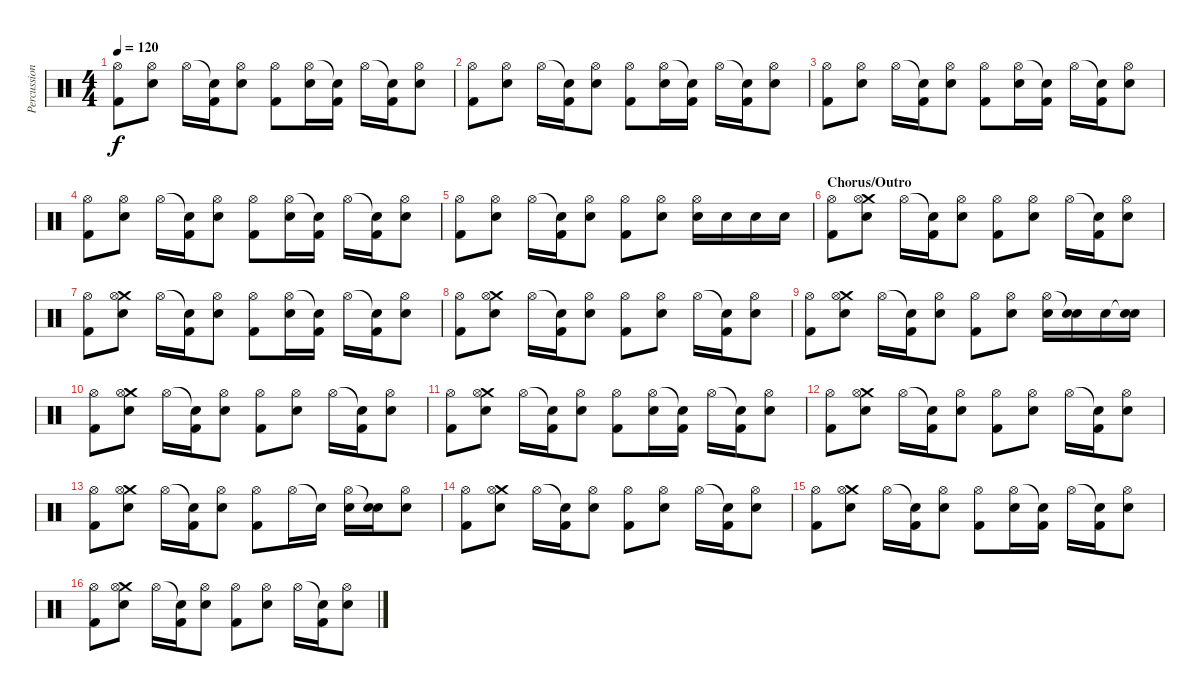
\track ("Percussion" "Percussion") {instrument percussion}
\staff {score}
\articulation defaults
\ts (4 4)
\tempo 120
\clef neutral
\ks c
("Hi-Hat (open)" "Kick (hit) 2").8{dy f} ("Hi-Hat (open)" "Electric Snare (hit)").8 "Hi-Hat (open)".16 ("Snare (hit)"{t} "Kick (hit) 2").16 ("Hi-Hat (open)" "Electric Snare (hit)").8 ("Hi-Hat (open)" "Kick (hit) 2").8 ("Hi-Hat (open)" "Electric Snare (hit)").16 ("Snare (hit)"{t} "Kick (hit) 2").16 "Hi-Hat (open)".16 ("Snare (hit)"{t} "Kick (hit) 2").16 ("Hi-Hat (open)" "Electric Snare (hit)").8 |
("Hi-Hat (open)" "Kick (hit) 2").8 ("Hi-Hat (open)" "Electric Snare (hit)").8 "Hi-Hat (open)".16 ("Snare (hit)"{t} "Kick (hit) 2").16 ("Hi-Hat (open)" "Electric Snare (hit)").8 ("Hi-Hat (open)" "Kick (hit) 2").8 ("Hi-Hat (open)" "Electric Snare (hit)").16 ("Snare (hit)"{t} "Kick (hit) 2").16 "Hi-Hat (open)".16 ("Snare (hit)"{t} "Kick (hit) 2").16 ("Hi-Hat (open)" "Electric Snare (hit)").8 |
("Hi-Hat (open)" "Kick (hit) 2").8 ("Hi-Hat (open)" "Electric Snare (hit)").8 "Hi-Hat (open)".16 ("Snare (hit)"{t} "Kick (hit) 2").16 ("Hi-Hat (open)" "Electric Snare (hit)").8 ("Hi-Hat (open)" "Kick (hit) 2").8 ("Hi-Hat (open)" "Electric Snare (hit)").16 ("Snare (hit)"{t} "Kick (hit) 2").16 "Hi-Hat (open)".16 ("Snare (hit)"{t} "Kick (hit) 2").16 ("Hi-Hat (open)" "Electric Snare (hit)").8 |
("Hi-Hat (open)" "Kick (hit) 2").8 ("Hi-Hat (open)" "Electric Snare (hit)").8 "Hi-Hat (open)".16 ("Snare (hit)"{t} "Kick (hit) 2").16 ("Hi-Hat (open)" "Electric Snare (hit)").8 ("Hi-Hat (open)" "Kick (hit) 2").8 ("Hi-Hat (open)" "Electric Snare (hit)").16 ("Snare (hit)"{t} "Kick (hit) 2").16 "Hi-Hat (open)".16 ("Snare (hit)"{t} "Kick (hit) 2").16 ("Hi-Hat (open)" "Electric Snare (hit)").8 |
("Hi-Hat (open)" "Kick (hit) 2").8 ("Hi-Hat (open)" "Electric Snare (hit)").8 "Hi-Hat (open)".16 ("Snare (hit)"{t} "Kick (hit) 2").16 ("Hi-Hat (open)" "Electric Snare (hit)").8 ("Hi-Hat (open)" "Kick (hit) 2").8 ("Hi-Hat (open)" "Electric Snare (hit)").8 ("Hi-Hat (open)" "Electric Snare (hit)").16 "Electric Snare (hit)".16 "Electric Snare (hit)".16 "Electric Snare (hit)".16 |
\section ("" "Chorus/Outro")
("Hi-Hat (open)" "Kick (hit) 2").8 ("Crash medium (hit)" "Hi-Hat (open)" "Electric Snare (hit)").8 "Hi-Hat (open)".16 ("Snare (hit)"{t} "Kick (hit) 2").16 ("Hi-Hat (open)" "Electric Snare (hit)").8 ("Hi-Hat (open)" "Kick (hit) 2").8 ("Hi-Hat (open)" "Electric Snare (hit)").8 "Hi-Hat (open)".16 ("Snare (hit)"{t} "Kick (hit) 2").16 ("Hi-Hat (open)" "Electric Snare (hit)").8 |
("Hi-Hat (open)" "Kick (hit) 2").8 ("Crash medium (hit)" "Hi-Hat (open)" "Electric Snare (hit)").8 "Hi-Hat (open)".16 ("Snare (hit)"{t} "Kick (hit) 2").16 ("Hi-Hat (open)" "Electric Snare (hit)").8 ("Hi-Hat (open)" "Kick (hit) 2").8 ("Hi-Hat (open)" "Electric Snare (hit)").16 ("Snare (hit)"{t} "Kick (hit) 2").16 "Hi-Hat (open)".16 ("Snare (hit)"{t} "Kick (hit) 2").16 ("Hi-Hat (open)" "Electric Snare (hit)").8 |
("Hi-Hat (open)" "Kick (hit) 2").8 ("Crash medium (hit)" "Hi-Hat (open)" "Electric Snare (hit)").8 "Hi-Hat (open)".16 ("Snare (hit)"{t} "Kick (hit) 2").16 ("Hi-Hat (open)" "Electric Snare (hit)").8 ("Hi-Hat (open)" "Kick (hit) 2").8 ("Hi-Hat (open)" "Electric Snare (hit)").8 "Hi-Hat (open)".16 ("Snare (hit)"{t} "Kick (hit) 2").16 ("Hi-Hat (open)" "Electric Snare (hit)").8 |
("Hi-Hat (open)" "Kick (hit) 2").8 ("Crash medium (hit)" "Hi-Hat (open)" "Electric Snare (hit)").8 "Hi-Hat (open)".16 ("Snare (hit)"{t} "Kick (hit) 2").16 ("Hi-Hat (open)" "Electric Snare (hit)").8 ("Hi-Hat (open)" "Kick (hit) 2").8 ("Hi-Hat (open)" "Electric Snare (hit)").8 ("Hi-Hat (open)" "Electric Snare (hit)").16 ("Snare (hit)"{t} "Electric Snare (hit)").16 "Electric Snare (hit)".16 ("Snare (hit)"{t} "Electric Snare (hit)").16 |
("Hi-Hat (open)" "Kick (hit) 2").8 ("Crash medium (hit)" "Hi-Hat (open)" "Electric Snare (hit)").8 "Hi-Hat (open)".16 ("Snare (hit)"{t} "Kick (hit) 2").16 ("Hi-Hat (open)" "Electric Snare (hit)").8 ("Hi-Hat (open)" "Kick (hit) 2").8 ("Hi-Hat (open)" "Electric Snare (hit)").8 "Hi-Hat (open)".16 ("Snare (hit)"{t} "Kick (hit) 2").16 ("Hi-Hat (open)" "Electric Snare (hit)").8 |
("Hi-Hat (open)" "Kick (hit) 2").8 ("Crash medium (hit)" "Hi-Hat (open)" "Electric Snare (hit)").8 "Hi-Hat (open)".16 ("Snare (hit)"{t} "Kick (hit) 2").16 ("Hi-Hat (open)" "Electric Snare (hit)").8 ("Hi-Hat (open)" "Kick (hit) 2").8 ("Hi-Hat (open)" "Electric Snare (hit)").16 ("Snare (hit)"{t} "Kick (hit) 2").16 "Hi-Hat (open)".16 ("Snare (hit)"{t} "Kick (hit) 2").16 ("Hi-Hat (open)" "Electric Snare (hit)").8 |
("Hi-Hat (open)" "Kick (hit) 2").8 ("Crash medium (hit)" "Hi-Hat (open)" "Electric Snare (hit)").8 "Hi-Hat (open)".16 ("Snare (hit)"{t} "Kick (hit) 2").16 ("Hi-Hat (open)" "Electric Snare (hit)").8 ("Hi-Hat (open)" "Kick (hit) 2").8 ("Hi-Hat (open)" "Electric Snare (hit)").8 "Hi-Hat (open)".16 ("Snare (hit)"{t} "Kick (hit) 2").16 ("Hi-Hat (open)" "Electric Snare (hit)").8 |
("Hi-Hat (open)" "Kick (hit) 2").8 ("Crash medium (hit)" "Hi-Hat (open)" "Electric Snare (hit)").8 "Hi-Hat (open)".16 ("Snare (hit)"{t} "Kick (hit) 2").16 ("Hi-Hat (open)" "Electric Snare (hit)").8 ("Hi-Hat (open)" "Kick (hit) 2").8 "Hi-Hat (open)".16 "Snare (hit)"{t}.16 ("Hi-Hat (open)" "Electric Snare (hit)").16 ("Snare (hit)"{t} "Electric Snare (hit)").16 ("Hi-Hat (open)" "Electric Snare (hit)").8 |
("Hi-Hat (open)" "Kick (hit) 2").8 ("Crash medium (hit)" "Hi-Hat (open)" "Electric Snare (hit)").8 "Hi-Hat (open)".16 ("Snare (hit)"{t} "Kick (hit) 2").16 ("Hi-Hat (open)" "Electric Snare (hit)").8 ("Hi-Hat (open)" "Kick (hit) 2").8 ("Hi-Hat (open)" "Electric Snare (hit)").8 "Hi-Hat (open)".16 ("Snare (hit)"{t} "Kick (hit) 2").16 ("Hi-Hat (open)" "Electric Snare (hit)").8 |
("Hi-Hat (open)" "Kick (hit) 2").8 ("Crash medium (hit)" "Hi-Hat (open)" "Electric Snare (hit)").8 "Hi-Hat (open)".16 ("Snare (hit)"{t} "Kick (hit) 2").16 ("Hi-Hat (open)" "Electric Snare (hit)").8 ("Hi-Hat (open)" "Kick (hit) 2").8 ("Hi-Hat (open)" "Electric Snare (hit)").16 ("Snare (hit)"{t} "Kick (hit) 2").16 "Hi-Hat (open)".16 ("Snare (hit)"{t} "Kick (hit) 2").16 ("Hi-Hat (open)" "Electric Snare (hit)").8 |
("Hi-Hat (open)" "Kick (hit) 2").8 ("Crash medium (hit)" "Hi-Hat (open)" "Electric Snare (hit)").8 "Hi-Hat (open)".16 ("Snare (hit)"{t} "Kick (hit) 2").16 ("Hi-Hat (open)" "Electric Snare (hit)").8 ("Hi-Hat (open)" "Kick (hit) 2").8 ("Hi-Hat (open)" "Electric Snare (hit)").8 "Hi-Hat (open)".16 ("Snare (hit)"{t} "Kick (hit) 2").16 ("Hi-Hat (open)" "Electric Snare (hit)").8
